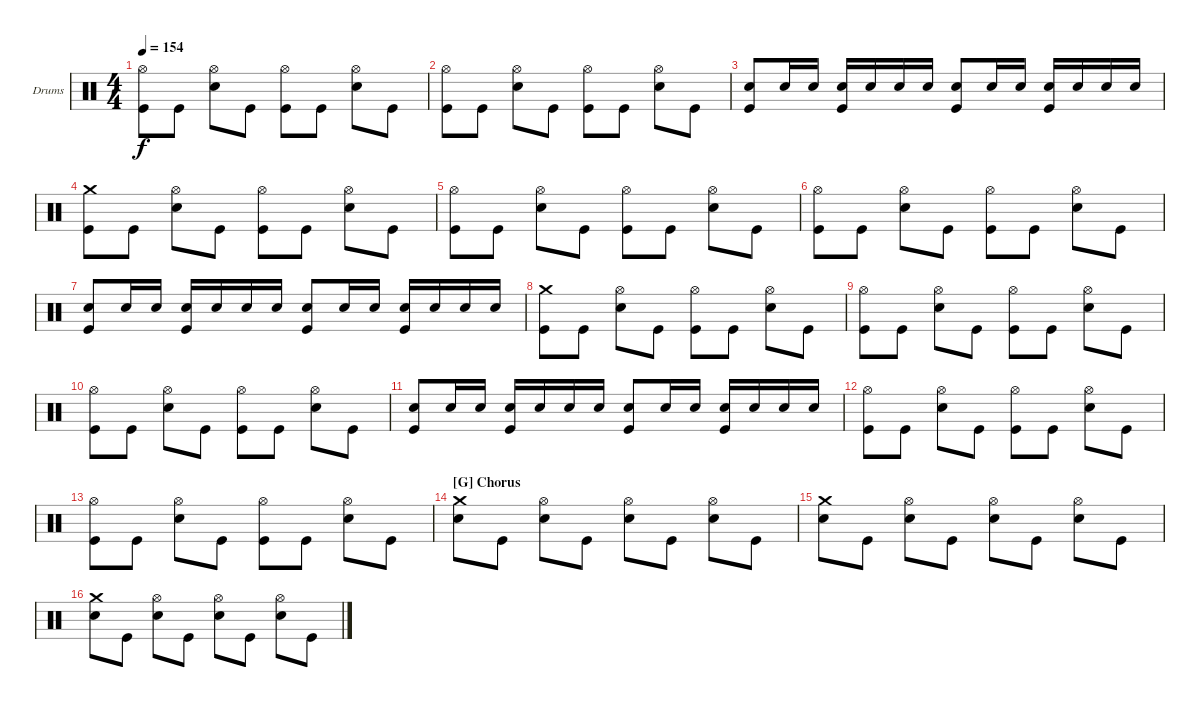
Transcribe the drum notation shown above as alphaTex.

\defaultSystemsLayout 4
\bracketExtendMode groupsimilarinstruments
\firstSystemTrackNameOrientation horizontal
\otherSystemsTrackNameOrientation horizontal
\track ("Drumkit" "Drums") {instrument percussion}
\staff {score}
\articulation defaults
\ts (4 4)
\tempo 154
\clef neutral
\scale
1.02648
\ks c
("Hi-Hat (open)" "Kick (hit)").8{dy f} "Kick (hit)".8 ("Hi-Hat (open)" "Snare (hit) 2").8 "Kick (hit)".8 ("Hi-Hat (open)" "Kick (hit)").8 "Kick (hit)".8 ("Hi-Hat (open)" "Snare (hit) 2").8 "Kick (hit)".8 |
\scale
0.973518 ("Hi-Hat (open)" "Kick (hit)").8 "Kick (hit)".8 ("Hi-Hat (open)" "Snare (hit) 2").8 "Kick (hit)".8 ("Hi-Hat (open)" "Kick (hit)").8 "Kick (hit)".8 ("Hi-Hat (open)" "Snare (hit) 2").8 "Kick (hit)".8 |
\scale
1.02648 ("Snare (hit) 2" "Kick (hit)").8 "Snare (hit) 2".16 "Snare (hit) 2".16 ("Snare (hit) 2" "Kick (hit)").16 "Snare (hit) 2".16 "Snare (hit) 2".16 "Snare (hit) 2".16 ("Snare (hit) 2" "Kick (hit)").8 "Snare (hit) 2".16 "Snare (hit) 2".16 ("Snare (hit) 2" "Kick (hit)").16 "Snare (hit) 2".16 "Snare (hit) 2".16 "Snare (hit) 2".16 |
\scale
0.973518 ("Crash medium (hit)" "Kick (hit)").8 "Kick (hit)".8 ("Hi-Hat (open)" "Snare (hit) 2").8 "Kick (hit)".8 ("Hi-Hat (open)" "Kick (hit)").8 "Kick (hit)".8 ("Hi-Hat (open)" "Snare (hit) 2").8 "Kick (hit)".8 |
\scale
1.02648 ("Hi-Hat (open)" "Kick (hit)").8 "Kick (hit)".8 ("Hi-Hat (open)" "Snare (hit) 2").8 "Kick (hit)".8 ("Hi-Hat (open)" "Kick (hit)").8 "Kick (hit)".8 ("Hi-Hat (open)" "Snare (hit) 2").8 "Kick (hit)".8 |
\scale
0.973518 ("Hi-Hat (open)" "Kick (hit)").8 "Kick (hit)".8 ("Hi-Hat (open)" "Snare (hit) 2").8 "Kick (hit)".8 ("Hi-Hat (open)" "Kick (hit)").8 "Kick (hit)".8 ("Hi-Hat (open)" "Snare (hit) 2").8 "Kick (hit)".8 |
\scale
1.02648 ("Snare (hit) 2" "Kick (hit)").8 "Snare (hit) 2".16 "Snare (hit) 2".16 ("Snare (hit) 2" "Kick (hit)").16 "Snare (hit) 2".16 "Snare (hit) 2".16 "Snare (hit) 2".16 ("Snare (hit) 2" "Kick (hit)").8 "Snare (hit) 2".16 "Snare (hit) 2".16 ("Snare (hit) 2" "Kick (hit)").16 "Snare (hit) 2".16 "Snare (hit) 2".16 "Snare (hit) 2".16 |
\scale
0.973518 ("Crash medium (hit)" "Kick (hit)").8 "Kick (hit)".8 ("Hi-Hat (open)" "Snare (hit) 2").8 "Kick (hit)".8 ("Hi-Hat (open)" "Kick (hit)").8 "Kick (hit)".8 ("Hi-Hat (open)" "Snare (hit) 2").8 "Kick (hit)".8 |
\scale
1.02648 ("Hi-Hat (open)" "Kick (hit)").8 "Kick (hit)".8 ("Hi-Hat (open)" "Snare (hit) 2").8 "Kick (hit)".8 ("Hi-Hat (open)" "Kick (hit)").8 "Kick (hit)".8 ("Hi-Hat (open)" "Snare (hit) 2").8 "Kick (hit)".8 |
\scale
0.973518 ("Hi-Hat (open)" "Kick (hit)").8 "Kick (hit)".8 ("Hi-Hat (open)" "Snare (hit) 2").8 "Kick (hit)".8 ("Hi-Hat (open)" "Kick (hit)").8 "Kick (hit)".8 ("Hi-Hat (open)" "Snare (hit) 2").8 "Kick (hit)".8 |
\scale
1.02648 ("Snare (hit) 2" "Kick (hit)").8 "Snare (hit) 2".16 "Snare (hit) 2".16 ("Snare (hit) 2" "Kick (hit)").16 "Snare (hit) 2".16 "Snare (hit) 2".16 "Snare (hit) 2".16 ("Snare (hit) 2" "Kick (hit)").8 "Snare (hit) 2".16 "Snare (hit) 2".16 ("Snare (hit) 2" "Kick (hit)").16 "Snare (hit) 2".16 "Snare (hit) 2".16 "Snare (hit) 2".16 |
\scale
0.973518 ("Hi-Hat (open)" "Kick (hit)").8 "Kick (hit)".8 ("Hi-Hat (open)" "Snare (hit) 2").8 "Kick (hit)".8 ("Hi-Hat (open)" "Kick (hit)").8 "Kick (hit)".8 ("Hi-Hat (open)" "Snare (hit) 2").8 "Kick (hit)".8 |
\scale
1.02648 ("Hi-Hat (open)" "Kick (hit)").8 "Kick (hit)".8 ("Hi-Hat (open)" "Snare (hit) 2").8 "Kick (hit)".8 ("Hi-Hat (open)" "Kick (hit)").8 "Kick (hit)".8 ("Hi-Hat (open)" "Snare (hit) 2").8 "Kick (hit)".8 |
\section ("G" "Chorus")
\scale
0.973518 ("Crash medium (hit)" "Snare (hit) 2").8 "Kick (hit)".8 ("Hi-Hat (open)" "Snare (hit) 2").8 "Kick (hit)".8 ("Hi-Hat (open)" "Snare (hit) 2").8 "Kick (hit)".8 ("Hi-Hat (open)" "Snare (hit) 2").8 "Kick (hit)".8 |
\scale
1.02648 ("Crash medium (hit)" "Snare (hit) 2").8 "Kick (hit)".8 ("Hi-Hat (open)" "Snare (hit) 2").8 "Kick (hit)".8 ("Hi-Hat (open)" "Snare (hit) 2").8 "Kick (hit)".8 ("Hi-Hat (open)" "Snare (hit) 2").8 "Kick (hit)".8 |
\scale
0.973518 ("Crash medium (hit)" "Snare (hit) 2").8 "Kick (hit)".8 ("Hi-Hat (open)" "Snare (hit) 2").8 "Kick (hit)".8 ("Hi-Hat (open)" "Snare (hit) 2").8 "Kick (hit)".8 ("Hi-Hat (open)" "Snare (hit) 2").8 "Kick (hit)".8
